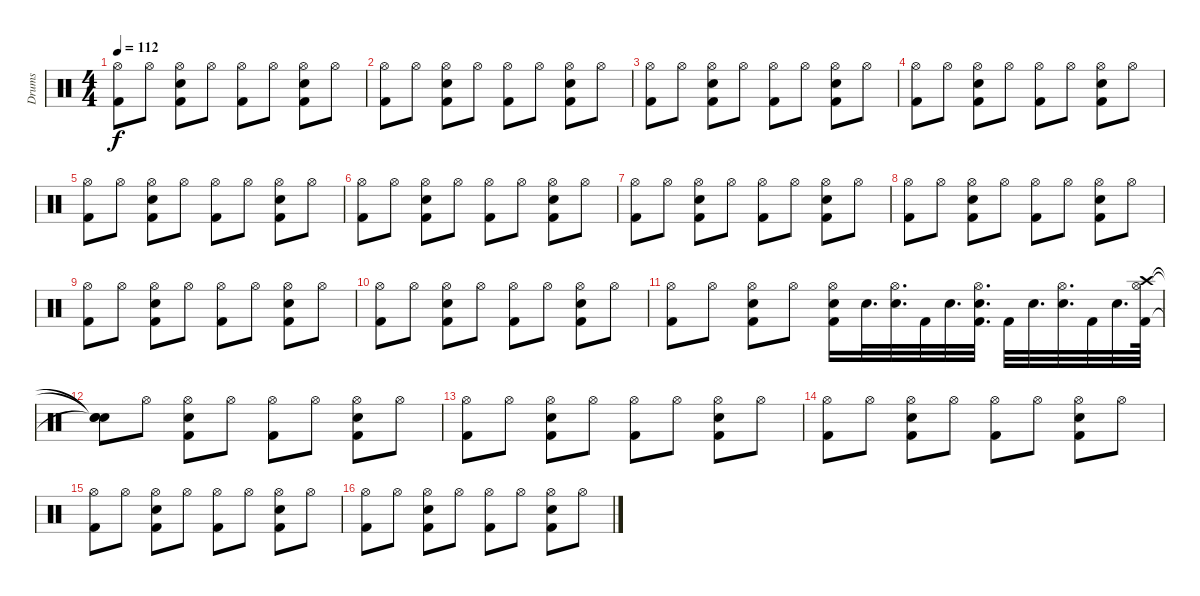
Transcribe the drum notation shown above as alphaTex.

\track ("Drums" "Drums") {instrument percussion}
\staff {score}
\articulation defaults
\ts (4 4)
\tempo 112
\clef neutral
\ks c
("Hi-Hat (open)" "Kick (hit) 2").8{dy f} "Hi-Hat (open)".8 ("Hi-Hat (open)" "Kick (hit) 2" "Snare (hit) 2").8 "Hi-Hat (open)".8 ("Kick (hit) 2" "Hi-Hat (open)").8 "Hi-Hat (open)".8 ("Kick (hit) 2" "Snare (hit) 2" "Hi-Hat (open)").8 "Hi-Hat (open)".8 |
("Hi-Hat (open)" "Kick (hit) 2").8 "Hi-Hat (open)".8 ("Hi-Hat (open)" "Kick (hit) 2" "Snare (hit) 2").8 "Hi-Hat (open)".8 ("Kick (hit) 2" "Hi-Hat (open)").8 "Hi-Hat (open)".8 ("Kick (hit) 2" "Snare (hit) 2" "Hi-Hat (open)").8 "Hi-Hat (open)".8 |
("Hi-Hat (open)" "Kick (hit) 2").8 "Hi-Hat (open)".8 ("Hi-Hat (open)" "Kick (hit) 2" "Snare (hit) 2").8 "Hi-Hat (open)".8 ("Kick (hit) 2" "Hi-Hat (open)").8 "Hi-Hat (open)".8 ("Kick (hit) 2" "Snare (hit) 2" "Hi-Hat (open)").8 "Hi-Hat (open)".8 |
("Hi-Hat (open)" "Kick (hit) 2").8 "Hi-Hat (open)".8 ("Hi-Hat (open)" "Kick (hit) 2" "Snare (hit) 2").8 "Hi-Hat (open)".8 ("Kick (hit) 2" "Hi-Hat (open)").8 "Hi-Hat (open)".8 ("Kick (hit) 2" "Snare (hit) 2" "Hi-Hat (open)").8 "Hi-Hat (open)".8 |
("Hi-Hat (open)" "Kick (hit) 2").8 "Hi-Hat (open)".8 ("Hi-Hat (open)" "Kick (hit) 2" "Snare (hit) 2").8 "Hi-Hat (open)".8 ("Kick (hit) 2" "Hi-Hat (open)").8 "Hi-Hat (open)".8 ("Kick (hit) 2" "Snare (hit) 2" "Hi-Hat (open)").8 "Hi-Hat (open)".8 |
("Hi-Hat (open)" "Kick (hit) 2").8 "Hi-Hat (open)".8 ("Hi-Hat (open)" "Kick (hit) 2" "Snare (hit) 2").8 "Hi-Hat (open)".8 ("Kick (hit) 2" "Hi-Hat (open)").8 "Hi-Hat (open)".8 ("Kick (hit) 2" "Snare (hit) 2" "Hi-Hat (open)").8 "Hi-Hat (open)".8 |
("Hi-Hat (open)" "Kick (hit) 2").8 "Hi-Hat (open)".8 ("Hi-Hat (open)" "Kick (hit) 2" "Snare (hit) 2").8 "Hi-Hat (open)".8 ("Kick (hit) 2" "Hi-Hat (open)").8 "Hi-Hat (open)".8 ("Kick (hit) 2" "Snare (hit) 2" "Hi-Hat (open)").8 "Hi-Hat (open)".8 |
("Hi-Hat (open)" "Kick (hit) 2").8 "Hi-Hat (open)".8 ("Hi-Hat (open)" "Kick (hit) 2" "Snare (hit) 2").8 "Hi-Hat (open)".8 ("Kick (hit) 2" "Hi-Hat (open)").8 "Hi-Hat (open)".8 ("Kick (hit) 2" "Snare (hit) 2" "Hi-Hat (open)").8 "Hi-Hat (open)".8 |
("Hi-Hat (open)" "Kick (hit) 2").8 "Hi-Hat (open)".8 ("Hi-Hat (open)" "Kick (hit) 2" "Snare (hit) 2").8 "Hi-Hat (open)".8 ("Kick (hit) 2" "Hi-Hat (open)").8 "Hi-Hat (open)".8 ("Kick (hit) 2" "Snare (hit) 2" "Hi-Hat (open)").8 "Hi-Hat (open)".8 |
("Hi-Hat (open)" "Kick (hit) 2").8 "Hi-Hat (open)".8 ("Hi-Hat (open)" "Kick (hit) 2" "Snare (hit) 2").8 "Hi-Hat (open)".8 ("Kick (hit) 2" "Hi-Hat (open)").8 "Hi-Hat (open)".8 ("Kick (hit) 2" "Snare (hit) 2" "Hi-Hat (open)").8 "Hi-Hat (open)".8 |
("Hi-Hat (open)" "Kick (hit) 2").8 "Hi-Hat (open)".8 ("Hi-Hat (open)" "Kick (hit) 2" "Snare (hit) 2").8 "Hi-Hat (open)".8 ("Snare (hit) 2" "Hi-Hat (open)" "Kick (hit) 2").16 "Snare (hit) 2".32{d} ("Snare (hit) 2" "Hi-Hat (open)").32{d} "Kick (hit) 2".32 "Snare (hit) 2".32{d} ("Hi-Hat (open)" "Snare (hit) 2" "Kick (hit) 2").32{d} "Kick (hit) 2".32 "Snare (hit) 2".32{d} ("Snare (hit) 2" "Hi-Hat (open)").32{d} "Kick (hit) 2".32 "Snare (hit) 2".32{d} ("Kick (hit) 2" "Hi-Hat (open)" "Crash high (hit)").64 |
("Snare (hit)"{t} "Snare (hit)"{t} "Snare (hit)"{t}).8 "Hi-Hat (open)".8 ("Snare (hit) 2" "Hi-Hat (open)" "Kick (hit) 2").8 "Hi-Hat (open)".8 ("Hi-Hat (open)" "Kick (hit) 2").8 "Hi-Hat (open)".8 ("Snare (hit) 2" "Kick (hit) 2" "Hi-Hat (open)").8 "Hi-Hat (open)".8 |
("Hi-Hat (open)" "Kick (hit) 2").8 "Hi-Hat (open)".8 ("Hi-Hat (open)" "Kick (hit) 2" "Snare (hit) 2").8 "Hi-Hat (open)".8 ("Kick (hit) 2" "Hi-Hat (open)").8 "Hi-Hat (open)".8 ("Kick (hit) 2" "Snare (hit) 2" "Hi-Hat (open)").8 "Hi-Hat (open)".8 |
("Hi-Hat (open)" "Kick (hit) 2").8 "Hi-Hat (open)".8 ("Hi-Hat (open)" "Kick (hit) 2" "Snare (hit) 2").8 "Hi-Hat (open)".8 ("Kick (hit) 2" "Hi-Hat (open)").8 "Hi-Hat (open)".8 ("Kick (hit) 2" "Snare (hit) 2" "Hi-Hat (open)").8 "Hi-Hat (open)".8 |
("Hi-Hat (open)" "Kick (hit) 2").8 "Hi-Hat (open)".8 ("Hi-Hat (open)" "Kick (hit) 2" "Snare (hit) 2").8 "Hi-Hat (open)".8 ("Kick (hit) 2" "Hi-Hat (open)").8 "Hi-Hat (open)".8 ("Kick (hit) 2" "Snare (hit) 2" "Hi-Hat (open)").8 "Hi-Hat (open)".8 |
("Hi-Hat (open)" "Kick (hit) 2").8 "Hi-Hat (open)".8 ("Hi-Hat (open)" "Kick (hit) 2" "Snare (hit) 2").8 "Hi-Hat (open)".8 ("Kick (hit) 2" "Hi-Hat (open)").8 "Hi-Hat (open)".8 ("Kick (hit) 2" "Snare (hit) 2" "Hi-Hat (open)").8 "Hi-Hat (open)".8
